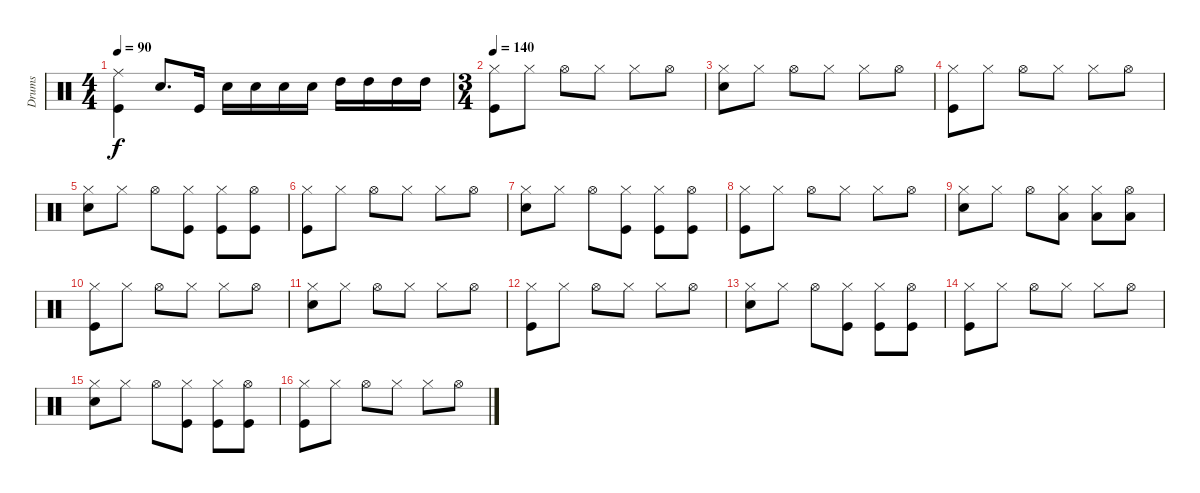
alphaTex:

\track ("Drums" "Drums") {instrument percussion}
\staff {score}
\articulation defaults
\ts (4 4)
\tempo 90
\clef neutral
\ks c
("Kick (hit)" "Ride (middle)").4{dy f} "Snare (hit) 2".8{d} "Kick (hit)".16 "Snare (hit) 2".16 "Snare (hit) 2".16 "Snare (hit) 2".16 "Snare (hit) 2".16 "High Tom (hit)".16 "High Tom (hit)".16 "High Tom (hit)".16 "High Tom (hit)".16 |
\ts (3 4)
\tempo 140
("Kick (hit)" "Hi-Hat (closed)").8 "Hi-Hat (closed)".8 "Hi-Hat (open)".8 "Hi-Hat (closed)".8 "Hi-Hat (closed)".8 "Hi-Hat (open)".8 |
("Snare (hit) 2" "Hi-Hat (closed)").8 "Hi-Hat (closed)".8 "Hi-Hat (open)".8 "Hi-Hat (closed)".8 "Hi-Hat (closed)".8 "Hi-Hat (open)".8 |
("Kick (hit)" "Hi-Hat (closed)").8 "Hi-Hat (closed)".8 "Hi-Hat (open)".8 "Hi-Hat (closed)".8 "Hi-Hat (closed)".8 "Hi-Hat (open)".8 |
("Snare (hit) 2" "Hi-Hat (closed)").8 "Hi-Hat (closed)".8 "Hi-Hat (open)".8 ("Kick (hit)" "Hi-Hat (closed)").8 ("Kick (hit)" "Hi-Hat (closed)").8 ("Kick (hit)" "Hi-Hat (open)").8 |
("Kick (hit)" "Hi-Hat (closed)").8 "Hi-Hat (closed)".8 "Hi-Hat (open)".8 "Hi-Hat (closed)".8 "Hi-Hat (closed)".8 "Hi-Hat (open)".8 |
("Snare (hit) 2" "Hi-Hat (closed)").8 "Hi-Hat (closed)".8 "Hi-Hat (open)".8 ("Kick (hit)" "Hi-Hat (closed)").8 ("Kick (hit)" "Hi-Hat (closed)").8 ("Kick (hit)" "Hi-Hat (open)").8 |
("Kick (hit)" "Hi-Hat (closed)").8 "Hi-Hat (closed)".8 "Hi-Hat (open)".8 "Hi-Hat (closed)".8 "Hi-Hat (closed)".8 "Hi-Hat (open)".8 |
("Snare (hit) 2" "Hi-Hat (closed)").8 "Hi-Hat (closed)".8 "Hi-Hat (open)".8 ("Low Tom (hit)" "Hi-Hat (closed)").8 ("Low Tom (hit)" "Hi-Hat (closed)").8 ("Low Tom (hit)" "Hi-Hat (open)").8 |
("Kick (hit)" "Hi-Hat (closed)").8 "Hi-Hat (closed)".8 "Hi-Hat (open)".8 "Hi-Hat (closed)".8 "Hi-Hat (closed)".8 "Hi-Hat (open)".8 |
("Snare (hit) 2" "Hi-Hat (closed)").8 "Hi-Hat (closed)".8 "Hi-Hat (open)".8 "Hi-Hat (closed)".8 "Hi-Hat (closed)".8 "Hi-Hat (open)".8 |
("Kick (hit)" "Hi-Hat (closed)").8 "Hi-Hat (closed)".8 "Hi-Hat (open)".8 "Hi-Hat (closed)".8 "Hi-Hat (closed)".8 "Hi-Hat (open)".8 |
("Snare (hit) 2" "Hi-Hat (closed)").8 "Hi-Hat (closed)".8 "Hi-Hat (open)".8 ("Kick (hit)" "Hi-Hat (closed)").8 ("Kick (hit)" "Hi-Hat (closed)").8 ("Kick (hit)" "Hi-Hat (open)").8 |
("Kick (hit)" "Hi-Hat (closed)").8 "Hi-Hat (closed)".8 "Hi-Hat (open)".8 "Hi-Hat (closed)".8 "Hi-Hat (closed)".8 "Hi-Hat (open)".8 |
("Snare (hit) 2" "Hi-Hat (closed)").8 "Hi-Hat (closed)".8 "Hi-Hat (open)".8 ("Kick (hit)" "Hi-Hat (closed)").8 ("Kick (hit)" "Hi-Hat (closed)").8 ("Kick (hit)" "Hi-Hat (open)").8 |
("Kick (hit)" "Hi-Hat (closed)").8 "Hi-Hat (closed)".8 "Hi-Hat (open)".8 "Hi-Hat (closed)".8 "Hi-Hat (closed)".8 "Hi-Hat (open)".8
